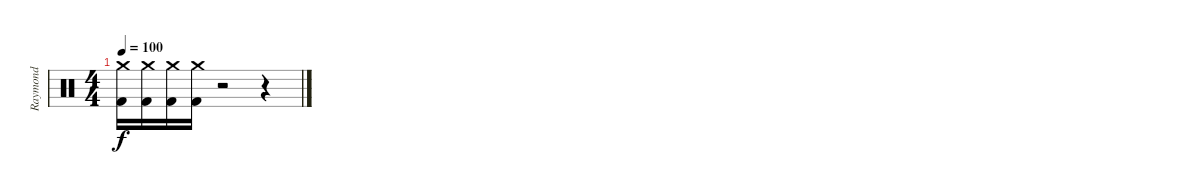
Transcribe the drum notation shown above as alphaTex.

\track ("Raymond" "Raymond") {instrument percussion}
\staff {score}
\articulation defaults
\ts (4 4)
\tempo 100
\clef neutral
\ks c
("Crash medium (hit)" "Kick (hit) 2").16{dy f} ("Crash medium (hit)" "Kick (hit) 2").16 ("Crash medium (hit)" "Kick (hit) 2").16 ("Crash medium (hit)" "Kick (hit) 2").16 r.2 r.4
